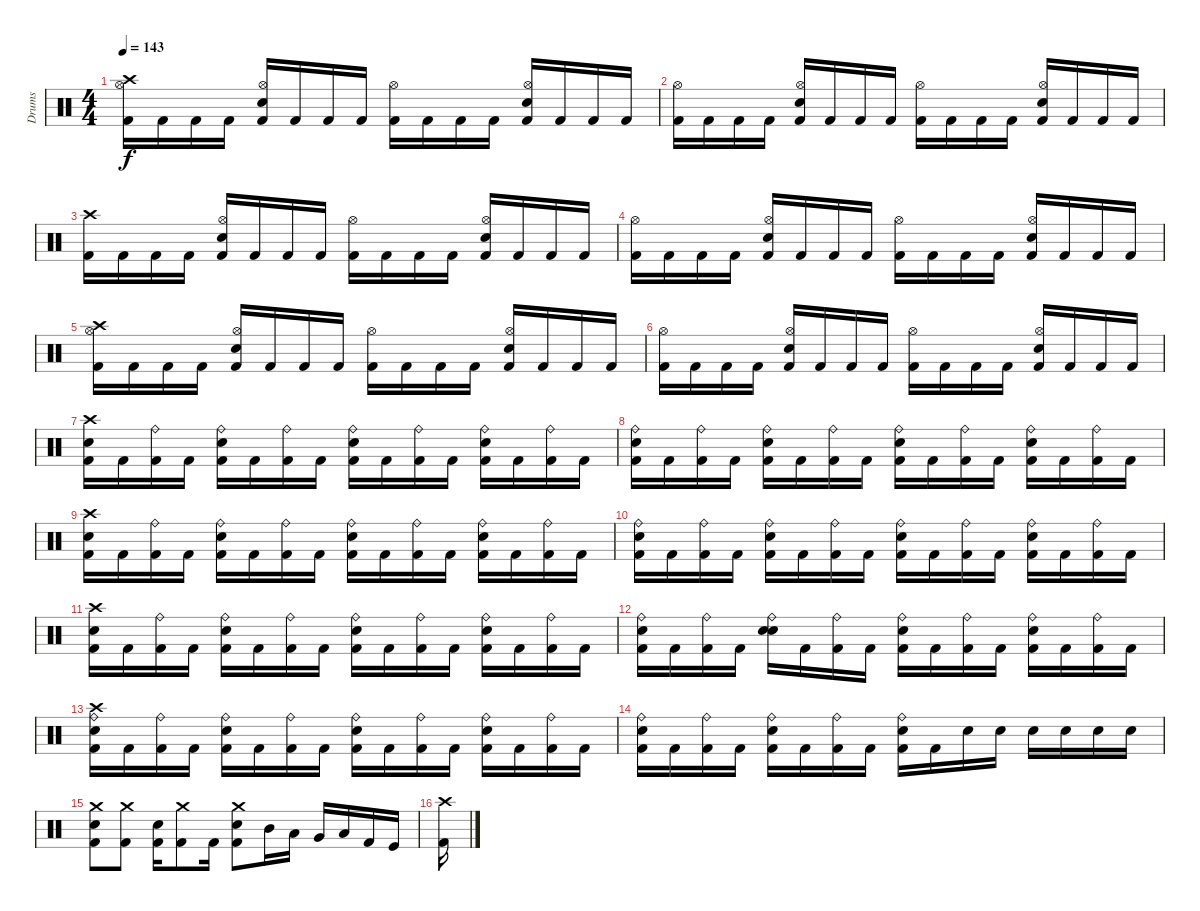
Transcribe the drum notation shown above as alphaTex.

\track ("Drums" "Drums") {instrument percussion}
\staff {score}
\articulation defaults
\ts (4 4)
\tempo 143
\clef neutral
\ks c
("Kick (hit) 2" "Hi-Hat (open)" "Crash high (hit)").16{dy f} "Kick (hit) 2".16 "Kick (hit) 2".16 "Kick (hit) 2".16 ("Snare (hit) 2" "Kick (hit) 2" "Hi-Hat (open)").16 "Kick (hit) 2".16 "Kick (hit) 2".16 "Kick (hit) 2".16 ("Kick (hit) 2" "Hi-Hat (open)").16 "Kick (hit) 2".16 "Kick (hit) 2".16 "Kick (hit) 2".16 ("Snare (hit) 2" "Kick (hit) 2" "Hi-Hat (open)").16 "Kick (hit) 2".16 "Kick (hit) 2".16 "Kick (hit) 2".16 |
("Kick (hit) 2" "Hi-Hat (open)").16 "Kick (hit) 2".16 "Kick (hit) 2".16 "Kick (hit) 2".16 ("Snare (hit) 2" "Kick (hit) 2" "Hi-Hat (open)").16 "Kick (hit) 2".16 "Kick (hit) 2".16 "Kick (hit) 2".16 ("Kick (hit) 2" "Hi-Hat (open)").16 "Kick (hit) 2".16 "Kick (hit) 2".16 "Kick (hit) 2".16 ("Snare (hit) 2" "Kick (hit) 2" "Hi-Hat (open)").16 "Kick (hit) 2".16 "Kick (hit) 2".16 "Kick (hit) 2".16 |
("Kick (hit) 2" "Crash high (hit)").16 "Kick (hit) 2".16 "Kick (hit) 2".16 "Kick (hit) 2".16 ("Snare (hit) 2" "Kick (hit) 2" "Hi-Hat (open)").16 "Kick (hit) 2".16 "Kick (hit) 2".16 "Kick (hit) 2".16 ("Kick (hit) 2" "Hi-Hat (open)").16 "Kick (hit) 2".16 "Kick (hit) 2".16 "Kick (hit) 2".16 ("Snare (hit) 2" "Kick (hit) 2" "Hi-Hat (open)").16 "Kick (hit) 2".16 "Kick (hit) 2".16 "Kick (hit) 2".16 |
("Kick (hit) 2" "Hi-Hat (open)").16 "Kick (hit) 2".16 "Kick (hit) 2".16 "Kick (hit) 2".16 ("Snare (hit) 2" "Kick (hit) 2" "Hi-Hat (open)").16 "Kick (hit) 2".16 "Kick (hit) 2".16 "Kick (hit) 2".16 ("Kick (hit) 2" "Hi-Hat (open)").16 "Kick (hit) 2".16 "Kick (hit) 2".16 "Kick (hit) 2".16 ("Snare (hit) 2" "Kick (hit) 2" "Hi-Hat (open)").16 "Kick (hit) 2".16 "Kick (hit) 2".16 "Kick (hit) 2".16 |
("Kick (hit) 2" "Hi-Hat (open)" "Crash high (hit)").16 "Kick (hit) 2".16 "Kick (hit) 2".16 "Kick (hit) 2".16 ("Snare (hit) 2" "Kick (hit) 2" "Hi-Hat (open)").16 "Kick (hit) 2".16 "Kick (hit) 2".16 "Kick (hit) 2".16 ("Kick (hit) 2" "Hi-Hat (open)").16 "Kick (hit) 2".16 "Kick (hit) 2".16 "Kick (hit) 2".16 ("Snare (hit) 2" "Kick (hit) 2" "Hi-Hat (open)").16 "Kick (hit) 2".16 "Kick (hit) 2".16 "Kick (hit) 2".16 |
("Kick (hit) 2" "Hi-Hat (open)").16 "Kick (hit) 2".16 "Kick (hit) 2".16 "Kick (hit) 2".16 ("Snare (hit) 2" "Kick (hit) 2" "Hi-Hat (open)").16 "Kick (hit) 2".16 "Kick (hit) 2".16 "Kick (hit) 2".16 ("Kick (hit) 2" "Hi-Hat (open)").16 "Kick (hit) 2".16 "Kick (hit) 2".16 "Kick (hit) 2".16 ("Snare (hit) 2" "Kick (hit) 2" "Hi-Hat (open)").16 "Kick (hit) 2".16 "Kick (hit) 2".16 "Kick (hit) 2".16 |
("Kick (hit) 2" "Snare (hit) 2" "Crash high (hit)").16 "Kick (hit) 2".16 ("Kick (hit) 2" "Ride (bell)").16 "Kick (hit) 2".16 ("Snare (hit) 2" "Kick (hit) 2" "Ride (bell)").16 "Kick (hit) 2".16 ("Kick (hit) 2" "Ride (bell)").16 "Kick (hit) 2".16 ("Kick (hit) 2" "Snare (hit) 2" "Ride (bell)").16 "Kick (hit) 2".16 ("Kick (hit) 2" "Ride (bell)").16 "Kick (hit) 2".16 ("Snare (hit) 2" "Kick (hit) 2" "Ride (bell)").16 "Kick (hit) 2".16 ("Kick (hit) 2" "Ride (bell)").16 "Kick (hit) 2".16 |
("Kick (hit) 2" "Snare (hit) 2" "Ride (bell)").16 "Kick (hit) 2".16 ("Kick (hit) 2" "Ride (bell)").16 "Kick (hit) 2".16 ("Snare (hit) 2" "Kick (hit) 2" "Ride (bell)").16 "Kick (hit) 2".16 ("Kick (hit) 2" "Ride (bell)").16 "Kick (hit) 2".16 ("Kick (hit) 2" "Snare (hit) 2" "Ride (bell)").16 "Kick (hit) 2".16 ("Kick (hit) 2" "Ride (bell)").16 "Kick (hit) 2".16 ("Snare (hit) 2" "Kick (hit) 2" "Ride (bell)").16 "Kick (hit) 2".16 ("Kick (hit) 2" "Ride (bell)").16 "Kick (hit) 2".16 |
("Kick (hit) 2" "Snare (hit) 2" "Crash high (hit)").16 "Kick (hit) 2".16 ("Kick (hit) 2" "Ride (bell)").16 "Kick (hit) 2".16 ("Snare (hit) 2" "Kick (hit) 2" "Ride (bell)").16 "Kick (hit) 2".16 ("Kick (hit) 2" "Ride (bell)").16 "Kick (hit) 2".16 ("Kick (hit) 2" "Snare (hit) 2" "Ride (bell)").16 "Kick (hit) 2".16 ("Kick (hit) 2" "Ride (bell)").16 "Kick (hit) 2".16 ("Snare (hit) 2" "Kick (hit) 2" "Ride (bell)").16 "Kick (hit) 2".16 ("Kick (hit) 2" "Ride (bell)").16 "Kick (hit) 2".16 |
("Kick (hit) 2" "Snare (hit) 2" "Ride (bell)").16 "Kick (hit) 2".16 ("Kick (hit) 2" "Ride (bell)").16 "Kick (hit) 2".16 ("Snare (hit) 2" "Kick (hit) 2" "Ride (bell)").16 "Kick (hit) 2".16 ("Kick (hit) 2" "Ride (bell)").16 "Kick (hit) 2".16 ("Kick (hit) 2" "Snare (hit) 2" "Ride (bell)").16 "Kick (hit) 2".16 ("Kick (hit) 2" "Ride (bell)").16 "Kick (hit) 2".16 ("Snare (hit) 2" "Kick (hit) 2" "Ride (bell)").16 "Kick (hit) 2".16 ("Kick (hit) 2" "Ride (bell)").16 "Kick (hit) 2".16 |
("Kick (hit) 2" "Snare (hit) 2" "Crash high (hit)").16 "Kick (hit) 2".16 ("Kick (hit) 2" "Ride (bell)").16 "Kick (hit) 2".16 ("Snare (hit) 2" "Kick (hit) 2" "Ride (bell)").16 "Kick (hit) 2".16 ("Kick (hit) 2" "Ride (bell)").16 "Kick (hit) 2".16 ("Kick (hit) 2" "Snare (hit) 2" "Ride (bell)").16 "Kick (hit) 2".16 ("Kick (hit) 2" "Ride (bell)").16 "Kick (hit) 2".16 ("Snare (hit) 2" "Kick (hit) 2" "Ride (bell)").16 "Kick (hit) 2".16 ("Kick (hit) 2" "Ride (bell)").16 "Kick (hit) 2".16 |
("Kick (hit) 2" "Snare (hit) 2" "Ride (bell)").16 "Kick (hit) 2".16 ("Kick (hit) 2" "Ride (bell)").16 "Kick (hit) 2".16 ("Snare (hit) 2" "Snare (hit) 2" "Ride (bell)").16 "Kick (hit) 2".16 ("Kick (hit) 2" "Ride (bell)").16 "Kick (hit) 2".16 ("Kick (hit) 2" "Snare (hit) 2" "Ride (bell)").16 "Kick (hit) 2".16 ("Kick (hit) 2" "Ride (bell)").16 "Kick (hit) 2".16 ("Snare (hit) 2" "Kick (hit) 2" "Ride (bell)").16 "Kick (hit) 2".16 ("Kick (hit) 2" "Ride (bell)").16 "Kick (hit) 2".16 |
("Kick (hit) 2" "Snare (hit) 2" "Ride (bell)" "Crash high (hit)").16 "Kick (hit) 2".16 ("Kick (hit) 2" "Ride (bell)").16 "Kick (hit) 2".16 ("Snare (hit) 2" "Kick (hit) 2" "Ride (bell)").16 "Kick (hit) 2".16 ("Kick (hit) 2" "Ride (bell)").16 "Kick (hit) 2".16 ("Kick (hit) 2" "Snare (hit) 2" "Ride (bell)").16 "Kick (hit) 2".16 ("Kick (hit) 2" "Ride (bell)").16 "Kick (hit) 2".16 ("Snare (hit) 2" "Kick (hit) 2" "Ride (bell)").16 "Kick (hit) 2".16 ("Kick (hit) 2" "Ride (bell)").16 "Kick (hit) 2".16 |
("Kick (hit) 2" "Snare (hit) 2" "Ride (bell)").16 "Kick (hit) 2".16 ("Kick (hit) 2" "Ride (bell)").16 "Kick (hit) 2".16 ("Snare (hit) 2" "Kick (hit) 2" "Ride (bell)").16 "Kick (hit) 2".16 ("Kick (hit) 2" "Ride (bell)").16 "Kick (hit) 2".16 ("Kick (hit) 2" "Snare (hit) 2" "Ride (bell)").16 "Kick (hit) 2".16 "Snare (hit) 2".16 "Snare (hit) 2".16 "Snare (hit) 2".16 "Snare (hit) 2".16 "Snare (hit) 2".16 "Snare (hit) 2".16 |
("Snare (hit) 2" "Kick (hit) 2" "Crash medium (hit)").8 ("Kick (hit) 2" "Crash medium (hit)").8 ("Snare (hit) 2" "Kick (hit) 2").16 ("Kick (hit) 2" "Crash medium (hit)").8 "Kick (hit) 2".16 ("Snare (hit) 2" "Kick (hit) 2" "Crash medium (hit)").8 "Mid Tom (hit)".16 "Low Tom (hit)".16 "Very Low Tom (hit)".16 "Low Floor Tom (hit)".16 "Kick (hit) 2".16 "Kick (hit)".16 |
("Kick (hit) 2" "Crash high (hit)").16
